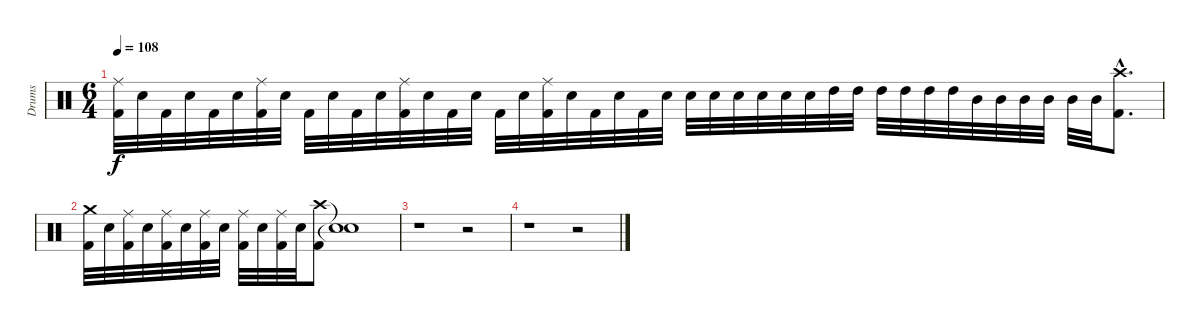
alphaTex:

\track ("Drums" "Drums") {instrument percussion}
\staff {score}
\articulation defaults
\ts (6 4)
\tempo 108
\clef neutral
\ks c
("Ride (middle)" "Kick (hit) 2").32{dy f} "Electric Snare (hit)".32 "Kick (hit) 2".32 "Electric Snare (hit)".32 "Kick (hit) 2".32 "Electric Snare (hit)".32 ("Ride (middle)" "Kick (hit) 2").32 "Electric Snare (hit)".32 "Kick (hit) 2".32 "Electric Snare (hit)".32 "Kick (hit) 2".32 "Electric Snare (hit)".32 ("Ride (middle)" "Kick (hit) 2").32 "Electric Snare (hit)".32 "Kick (hit) 2".32 "Electric Snare (hit)".32 "Kick (hit) 2".32 "Electric Snare (hit)".32 ("Ride (middle)" "Kick (hit) 2").32 "Electric Snare (hit)".32 "Kick (hit) 2".32 "Electric Snare (hit)".32 "Kick (hit) 2".32 "Electric Snare (hit)".32 "Electric Snare (hit)".32 "Electric Snare (hit)".32 "Electric Snare (hit)".32 "Electric Snare (hit)".32 "Electric Snare (hit)".32 "Electric Snare (hit)".32 "High Tom (hit)".32 "High Tom (hit)".32 "High Tom (hit)".32 "High Tom (hit)".32 "High Tom (hit)".32 "High Tom (hit)".32 "Mid Tom (hit)".32 "Mid Tom (hit)".32 "Mid Tom (hit)".32 "Mid Tom (hit)".32 "Mid Tom (hit)".32 "Mid Tom (hit)".32 ("Crash high (hit)"{hac} "Kick (hit) 2"{hac}).8{d} |
("Crash medium (hit)" "Kick (hit) 2").32 "Electric Snare (hit)".32 ("Ride (middle)" "Kick (hit) 2").32 "Electric Snare (hit)".32 ("Ride (middle)" "Kick (hit) 2").32 "Electric Snare (hit)".32 ("Ride (middle)" "Kick (hit) 2").32 "Electric Snare (hit)".32 ("Ride (middle)" "Kick (hit) 2").32 "Electric Snare (hit)".32 ("Ride (middle)" "Kick (hit) 2").32 "Electric Snare (hit)".32 ("Crash high (hit)" "Kick (hit) 2").8 ("Snare (hit)"{t} "Snare (hit)"{t}).1{volume 0} |
r.1 r.2 |
r.1 r.2
